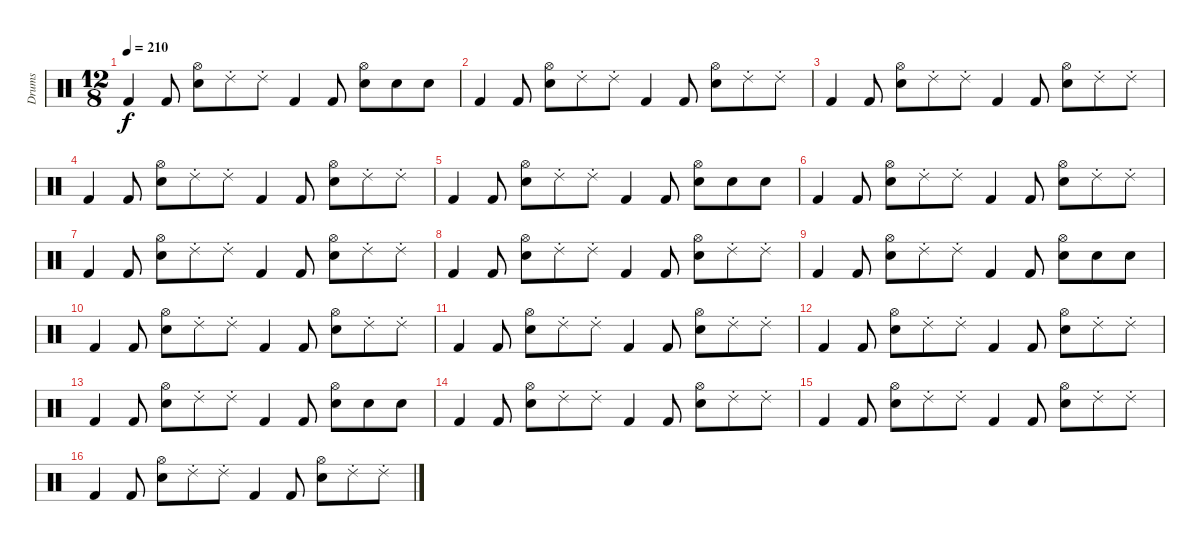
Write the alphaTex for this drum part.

\track ("Drums" "Drums") {instrument percussion}
\staff {score}
\articulation defaults
\ts (12 8)
\tempo 210
\clef neutral
\ks c "Kick (hit) 2".4{dy f} "Kick (hit) 2".8
("Snare (hit) 2" "Hi-Hat (open)").8 "Ride (choke) 2".8 "Ride (choke) 2".8 "Kick (hit) 2".4 "Kick (hit) 2".8 ("Snare (hit) 2" "Hi-Hat (open)").8 "Snare (hit) 2".8 "Snare (hit) 2".8 |
"Kick (hit) 2".4 "Kick (hit) 2".8 ("Snare (hit) 2" "Hi-Hat (open)").8 "Ride (choke) 2".8 "Ride (choke) 2".8 "Kick (hit) 2".4 "Kick (hit) 2".8 ("Snare (hit) 2" "Hi-Hat (open)").8 "Ride (choke) 2".8 "Ride (choke) 2".8 |
"Kick (hit) 2".4 "Kick (hit) 2".8 ("Snare (hit) 2" "Hi-Hat (open)").8 "Ride (choke) 2".8 "Ride (choke) 2".8 "Kick (hit) 2".4 "Kick (hit) 2".8 ("Snare (hit) 2" "Hi-Hat (open)").8 "Ride (choke) 2".8 "Ride (choke) 2".8 |
"Kick (hit) 2".4 "Kick (hit) 2".8 ("Snare (hit) 2" "Hi-Hat (open)").8 "Ride (choke) 2".8 "Ride (choke) 2".8 "Kick (hit) 2".4 "Kick (hit) 2".8 ("Snare (hit) 2" "Hi-Hat (open)").8 "Ride (choke) 2".8 "Ride (choke) 2".8 |
"Kick (hit) 2".4 "Kick (hit) 2".8 ("Snare (hit) 2" "Hi-Hat (open)").8 "Ride (choke) 2".8 "Ride (choke) 2".8 "Kick (hit) 2".4 "Kick (hit) 2".8 ("Snare (hit) 2" "Hi-Hat (open)").8 "Snare (hit) 2".8 "Snare (hit) 2".8 |
"Kick (hit) 2".4 "Kick (hit) 2".8 ("Snare (hit) 2" "Hi-Hat (open)").8 "Ride (choke) 2".8 "Ride (choke) 2".8 "Kick (hit) 2".4 "Kick (hit) 2".8 ("Snare (hit) 2" "Hi-Hat (open)").8 "Ride (choke) 2".8 "Ride (choke) 2".8 |
"Kick (hit) 2".4 "Kick (hit) 2".8 ("Snare (hit) 2" "Hi-Hat (open)").8 "Ride (choke) 2".8 "Ride (choke) 2".8 "Kick (hit) 2".4 "Kick (hit) 2".8 ("Snare (hit) 2" "Hi-Hat (open)").8 "Ride (choke) 2".8 "Ride (choke) 2".8 |
"Kick (hit) 2".4 "Kick (hit) 2".8 ("Snare (hit) 2" "Hi-Hat (open)").8 "Ride (choke) 2".8 "Ride (choke) 2".8 "Kick (hit) 2".4 "Kick (hit) 2".8 ("Snare (hit) 2" "Hi-Hat (open)").8 "Ride (choke) 2".8 "Ride (choke) 2".8 |
"Kick (hit) 2".4 "Kick (hit) 2".8 ("Snare (hit) 2" "Hi-Hat (open)").8 "Ride (choke) 2".8 "Ride (choke) 2".8 "Kick (hit) 2".4 "Kick (hit) 2".8 ("Snare (hit) 2" "Hi-Hat (open)").8 "Snare (hit) 2".8 "Snare (hit) 2".8 |
"Kick (hit) 2".4 "Kick (hit) 2".8 ("Snare (hit) 2" "Hi-Hat (open)").8 "Ride (choke) 2".8 "Ride (choke) 2".8 "Kick (hit) 2".4 "Kick (hit) 2".8 ("Snare (hit) 2" "Hi-Hat (open)").8 "Ride (choke) 2".8 "Ride (choke) 2".8 |
"Kick (hit) 2".4 "Kick (hit) 2".8 ("Snare (hit) 2" "Hi-Hat (open)").8 "Ride (choke) 2".8 "Ride (choke) 2".8 "Kick (hit) 2".4 "Kick (hit) 2".8 ("Snare (hit) 2" "Hi-Hat (open)").8 "Ride (choke) 2".8 "Ride (choke) 2".8 |
"Kick (hit) 2".4 "Kick (hit) 2".8 ("Snare (hit) 2" "Hi-Hat (open)").8 "Ride (choke) 2".8 "Ride (choke) 2".8 "Kick (hit) 2".4 "Kick (hit) 2".8 ("Snare (hit) 2" "Hi-Hat (open)").8 "Ride (choke) 2".8 "Ride (choke) 2".8 |
"Kick (hit) 2".4 "Kick (hit) 2".8 ("Snare (hit) 2" "Hi-Hat (open)").8 "Ride (choke) 2".8 "Ride (choke) 2".8 "Kick (hit) 2".4 "Kick (hit) 2".8 ("Snare (hit) 2" "Hi-Hat (open)").8 "Snare (hit) 2".8 "Snare (hit) 2".8 |
"Kick (hit) 2".4 "Kick (hit) 2".8 ("Snare (hit) 2" "Hi-Hat (open)").8 "Ride (choke) 2".8 "Ride (choke) 2".8 "Kick (hit) 2".4 "Kick (hit) 2".8 ("Snare (hit) 2" "Hi-Hat (open)").8 "Ride (choke) 2".8 "Ride (choke) 2".8 |
"Kick (hit) 2".4 "Kick (hit) 2".8 ("Snare (hit) 2" "Hi-Hat (open)").8 "Ride (choke) 2".8 "Ride (choke) 2".8 "Kick (hit) 2".4 "Kick (hit) 2".8 ("Snare (hit) 2" "Hi-Hat (open)").8 "Ride (choke) 2".8 "Ride (choke) 2".8 |
"Kick (hit) 2".4 "Kick (hit) 2".8 ("Snare (hit) 2" "Hi-Hat (open)").8 "Ride (choke) 2".8 "Ride (choke) 2".8 "Kick (hit) 2".4 "Kick (hit) 2".8 ("Snare (hit) 2" "Hi-Hat (open)").8 "Ride (choke) 2".8 "Ride (choke) 2".8
